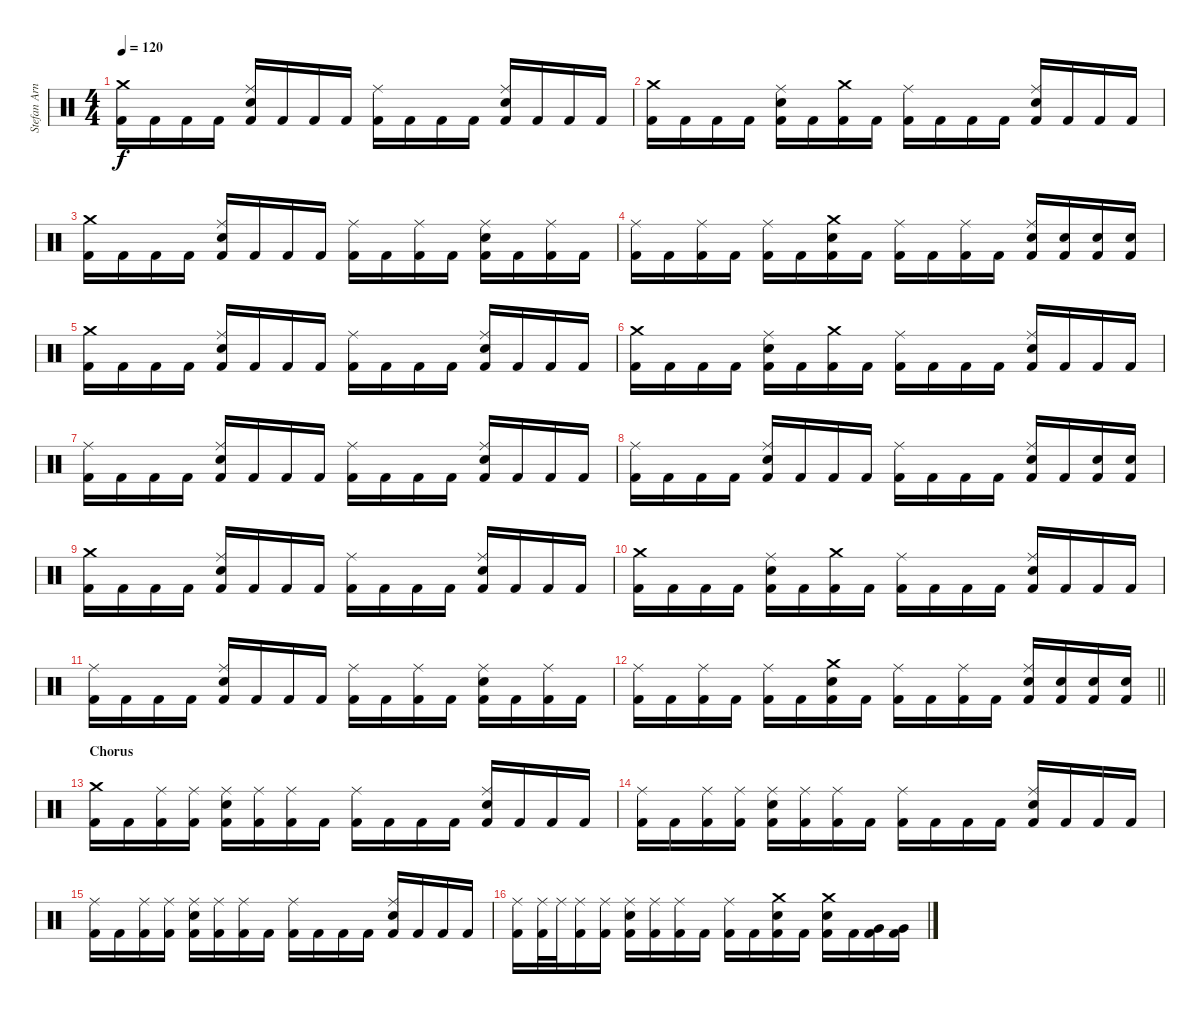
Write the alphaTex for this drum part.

\track ("Stefan Arnold" "Stefan Arn") {instrument percussion}
\staff {score}
\articulation defaults
\ts (4 4)
\tempo 120
\clef neutral
\ks c
("Crash medium (hit)" "Kick (hit) 2").16{dy f} "Kick (hit) 2".16 "Kick (hit) 2".16 "Kick (hit) 2".16 ("Ride (middle)" "Electric Snare (hit)" "Kick (hit) 2").16 "Kick (hit) 2".16 "Kick (hit) 2".16 "Kick (hit) 2".16 ("Ride (middle)" "Kick (hit) 2").16 "Kick (hit) 2".16 "Kick (hit) 2".16 "Kick (hit) 2".16 ("Ride (middle)" "Electric Snare (hit)" "Kick (hit) 2").16 "Kick (hit) 2".16 "Kick (hit) 2".16 "Kick (hit) 2".16 |
("Crash medium (hit)" "Kick (hit) 2").16 "Kick (hit) 2".16 "Kick (hit) 2".16 "Kick (hit) 2".16 ("Ride (middle)" "Electric Snare (hit)" "Kick (hit) 2").16 "Kick (hit) 2".16 ("Crash medium (hit)" "Kick (hit) 2").16 "Kick (hit) 2".16 ("Ride (middle)" "Kick (hit) 2").16 "Kick (hit) 2".16 "Kick (hit) 2".16 "Kick (hit) 2".16 ("Ride (middle)" "Electric Snare (hit)" "Kick (hit) 2").16 "Kick (hit) 2".16 "Kick (hit) 2".16 "Kick (hit) 2".16 |
("Crash medium (hit)" "Kick (hit) 2").16 "Kick (hit) 2".16 "Kick (hit) 2".16 "Kick (hit) 2".16 ("Ride (middle)" "Electric Snare (hit)" "Kick (hit) 2").16 "Kick (hit) 2".16 "Kick (hit) 2".16 "Kick (hit) 2".16 ("Ride (middle)" "Kick (hit) 2").16 "Kick (hit) 2".16 ("Ride (middle)" "Kick (hit) 2").16 "Kick (hit) 2".16 ("Ride (middle)" "Electric Snare (hit)" "Kick (hit) 2").16 "Kick (hit) 2".16 ("Ride (middle)" "Kick (hit) 2").16 "Kick (hit) 2".16 |
("Ride (middle)" "Kick (hit) 2").16 "Kick (hit) 2".16 ("Ride (middle)" "Kick (hit) 2").16 "Kick (hit) 2".16 ("Ride (middle)" "Kick (hit) 2").16 "Kick (hit) 2".16 ("Crash medium (hit)" "Electric Snare (hit)" "Kick (hit) 2").16 "Kick (hit) 2".16 ("Ride (middle)" "Kick (hit) 2").16 "Kick (hit) 2".16 ("Ride (middle)" "Kick (hit) 2").16 "Kick (hit) 2".16 ("Ride (middle)" "Electric Snare (hit)" "Kick (hit) 2").16 ("Electric Snare (hit)" "Kick (hit) 2").16 ("Electric Snare (hit)" "Kick (hit) 2").16 ("Electric Snare (hit)" "Kick (hit) 2").16 |
("Crash medium (hit)" "Kick (hit) 2").16 "Kick (hit) 2".16 "Kick (hit) 2".16 "Kick (hit) 2".16 ("Ride (middle)" "Electric Snare (hit)" "Kick (hit) 2").16 "Kick (hit) 2".16 "Kick (hit) 2".16 "Kick (hit) 2".16 ("Ride (middle)" "Kick (hit) 2").16 "Kick (hit) 2".16 "Kick (hit) 2".16 "Kick (hit) 2".16 ("Ride (middle)" "Electric Snare (hit)" "Kick (hit) 2").16 "Kick (hit) 2".16 "Kick (hit) 2".16 "Kick (hit) 2".16 |
("Crash medium (hit)" "Kick (hit) 2").16 "Kick (hit) 2".16 "Kick (hit) 2".16 "Kick (hit) 2".16 ("Ride (middle)" "Electric Snare (hit)" "Kick (hit) 2").16 "Kick (hit) 2".16 ("Crash medium (hit)" "Kick (hit) 2").16 "Kick (hit) 2".16 ("Ride (middle)" "Kick (hit) 2").16 "Kick (hit) 2".16 "Kick (hit) 2".16 "Kick (hit) 2".16 ("Ride (middle)" "Electric Snare (hit)" "Kick (hit) 2").16 "Kick (hit) 2".16 "Kick (hit) 2".16 "Kick (hit) 2".16 |
("Ride (middle)" "Kick (hit) 2").16 "Kick (hit) 2".16 "Kick (hit) 2".16 "Kick (hit) 2".16 ("Ride (middle)" "Electric Snare (hit)" "Kick (hit) 2").16 "Kick (hit) 2".16 "Kick (hit) 2".16 "Kick (hit) 2".16 ("Ride (middle)" "Kick (hit) 2").16 "Kick (hit) 2".16 "Kick (hit) 2".16 "Kick (hit) 2".16 ("Ride (middle)" "Electric Snare (hit)" "Kick (hit) 2").16 "Kick (hit) 2".16 "Kick (hit) 2".16 "Kick (hit) 2".16 |
("Ride (middle)" "Kick (hit) 2").16 "Kick (hit) 2".16 "Kick (hit) 2".16 "Kick (hit) 2".16 ("Ride (middle)" "Electric Snare (hit)" "Kick (hit) 2").16 "Kick (hit) 2".16 "Kick (hit) 2".16 "Kick (hit) 2".16 ("Ride (middle)" "Kick (hit) 2").16 "Kick (hit) 2".16 "Kick (hit) 2".16 "Kick (hit) 2".16 ("Ride (middle)" "Electric Snare (hit)" "Kick (hit) 2").16 "Kick (hit) 2".16 ("Electric Snare (hit)" "Kick (hit) 2").16 ("Electric Snare (hit)" "Kick (hit) 2").16 |
("Crash medium (hit)" "Kick (hit) 2").16 "Kick (hit) 2".16 "Kick (hit) 2".16 "Kick (hit) 2".16 ("Ride (middle)" "Electric Snare (hit)" "Kick (hit) 2").16 "Kick (hit) 2".16 "Kick (hit) 2".16 "Kick (hit) 2".16 ("Ride (middle)" "Kick (hit) 2").16 "Kick (hit) 2".16 "Kick (hit) 2".16 "Kick (hit) 2".16 ("Ride (middle)" "Electric Snare (hit)" "Kick (hit) 2").16 "Kick (hit) 2".16 "Kick (hit) 2".16 "Kick (hit) 2".16 |
("Crash medium (hit)" "Kick (hit) 2").16 "Kick (hit) 2".16 "Kick (hit) 2".16 "Kick (hit) 2".16 ("Ride (middle)" "Electric Snare (hit)" "Kick (hit) 2").16 "Kick (hit) 2".16 ("Crash medium (hit)" "Kick (hit) 2").16 "Kick (hit) 2".16 ("Ride (middle)" "Kick (hit) 2").16 "Kick (hit) 2".16 "Kick (hit) 2".16 "Kick (hit) 2".16 ("Ride (middle)" "Electric Snare (hit)" "Kick (hit) 2").16 "Kick (hit) 2".16 "Kick (hit) 2".16 "Kick (hit) 2".16 |
("Ride (middle)" "Kick (hit) 2").16 "Kick (hit) 2".16 "Kick (hit) 2".16 "Kick (hit) 2".16 ("Ride (middle)" "Electric Snare (hit)" "Kick (hit) 2").16 "Kick (hit) 2".16 "Kick (hit) 2".16 "Kick (hit) 2".16 ("Ride (middle)" "Kick (hit) 2").16 "Kick (hit) 2".16 ("Ride (middle)" "Kick (hit) 2").16 "Kick (hit) 2".16 ("Ride (middle)" "Electric Snare (hit)" "Kick (hit) 2").16 "Kick (hit) 2".16 ("Ride (middle)" "Kick (hit) 2").16 "Kick (hit) 2".16 |
\barLineRight lightlight
("Ride (middle)" "Kick (hit) 2").16 "Kick (hit) 2".16 ("Ride (middle)" "Kick (hit) 2").16 "Kick (hit) 2".16 ("Ride (middle)" "Kick (hit) 2").16 "Kick (hit) 2".16 ("Crash medium (hit)" "Electric Snare (hit)" "Kick (hit) 2").16 "Kick (hit) 2".16 ("Ride (middle)" "Kick (hit) 2").16 "Kick (hit) 2".16 ("Ride (middle)" "Kick (hit) 2").16 "Kick (hit) 2".16 ("Ride (middle)" "Electric Snare (hit)" "Kick (hit) 2").16 ("Electric Snare (hit)" "Kick (hit) 2").16 ("Electric Snare (hit)" "Kick (hit) 2").16 ("Electric Snare (hit)" "Kick (hit) 2").16 |
\section ("" "Chorus")
("Crash medium (hit)" "Kick (hit) 2").16 "Kick (hit) 2".16 ("Ride (middle)" "Kick (hit) 2").16 ("Ride (middle)" "Kick (hit) 2").16 ("Ride (middle)" "Electric Snare (hit)" "Kick (hit) 2").16 ("Ride (middle)" "Kick (hit) 2").16 ("Ride (middle)" "Kick (hit) 2").16 "Kick (hit) 2".16 ("Ride (middle)" "Kick (hit) 2").16 "Kick (hit) 2".16 "Kick (hit) 2".16 "Kick (hit) 2".16 ("Ride (middle)" "Electric Snare (hit)" "Kick (hit) 2").16 "Kick (hit) 2".16 "Kick (hit) 2".16 "Kick (hit) 2".16 |
("Ride (middle)" "Kick (hit) 2").16 "Kick (hit) 2".16 ("Ride (middle)" "Kick (hit) 2").16 ("Ride (middle)" "Kick (hit) 2").16 ("Ride (middle)" "Electric Snare (hit)" "Kick (hit) 2").16 ("Ride (middle)" "Kick (hit) 2").16 ("Ride (middle)" "Kick (hit) 2").16 "Kick (hit) 2".16 ("Ride (middle)" "Kick (hit) 2").16 "Kick (hit) 2".16 "Kick (hit) 2".16 "Kick (hit) 2".16 ("Ride (middle)" "Electric Snare (hit)" "Kick (hit) 2").16 "Kick (hit) 2".16 "Kick (hit) 2".16 "Kick (hit) 2".16 |
("Ride (middle)" "Kick (hit) 2").16 "Kick (hit) 2".16 ("Ride (middle)" "Kick (hit) 2").16 ("Ride (middle)" "Kick (hit) 2").16 ("Ride (middle)" "Electric Snare (hit)" "Kick (hit) 2").16 ("Ride (middle)" "Kick (hit) 2").16 ("Ride (middle)" "Kick (hit) 2").16 "Kick (hit) 2".16 ("Ride (middle)" "Kick (hit) 2").16 "Kick (hit) 2".16 "Kick (hit) 2".16 "Kick (hit) 2".16 ("Ride (middle)" "Electric Snare (hit)" "Kick (hit) 2").16 "Kick (hit) 2".16 "Kick (hit) 2".16 "Kick (hit) 2".16 |
("Ride (middle)" "Kick (hit) 2").16 ("Ride (middle)" "Kick (hit) 2").32 "Ride (middle)".32 ("Ride (middle)" "Kick (hit) 2").16 ("Ride (middle)" "Kick (hit) 2").16 ("Ride (middle)" "Electric Snare (hit)" "Kick (hit) 2").16 ("Ride (middle)" "Kick (hit) 2").16 ("Ride (middle)" "Kick (hit) 2").16 "Kick (hit) 2".16 ("Ride (middle)" "Kick (hit) 2").16 "Kick (hit) 2".16 ("Crash medium (hit)" "Electric Snare (hit)" "Kick (hit) 2").16 "Kick (hit) 2".16 ("Crash medium (hit)" "Electric Snare (hit)" "Kick (hit) 2").16 "Kick (hit) 2".16 ("Very Low Tom (hit)" "Kick (hit) 2").16 ("Very Low Tom (hit)" "Kick (hit) 2").16
